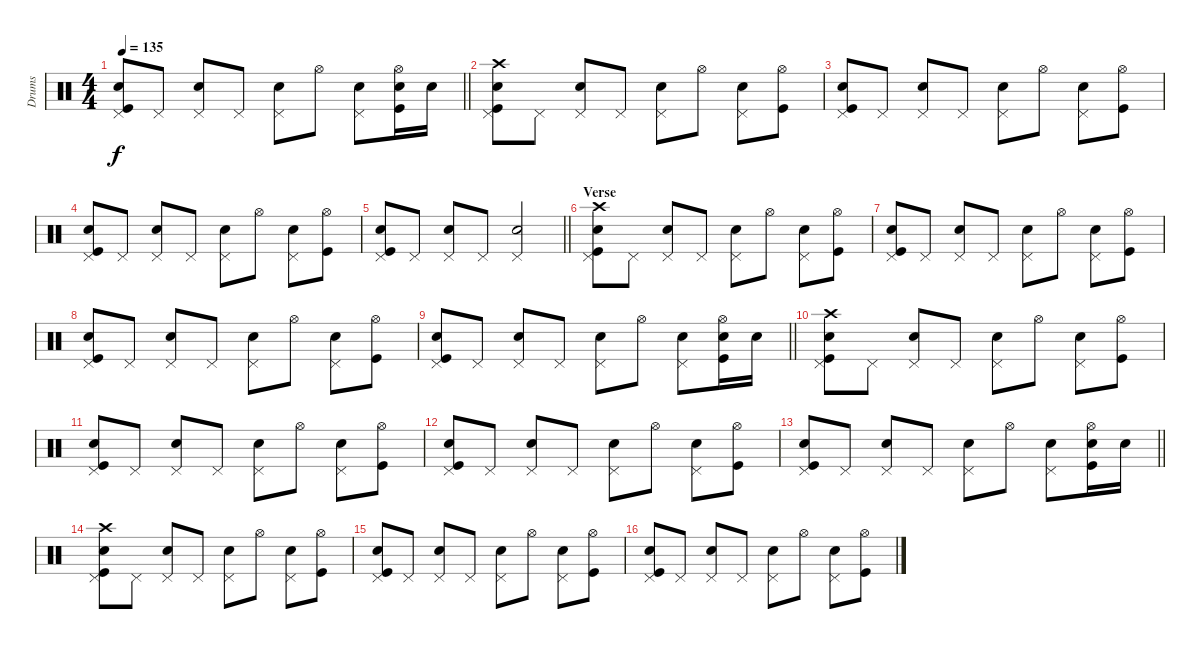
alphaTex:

\track ("Drums" "Drums") {instrument percussion}
\staff {score}
\articulation defaults
\ts (4 4)
\tempo 135
\clef neutral
\barLineRight lightlight
\ks c
("Pedal Hi-Hat (hit)" "Kick (hit)" "Electric Snare (hit)").8{dy f} "Pedal Hi-Hat (hit)".8 ("Pedal Hi-Hat (hit)" "Electric Snare (hit)").8 "Pedal Hi-Hat (hit)".8 ("Pedal Hi-Hat (hit)" "Electric Snare (hit)").8 "Hi-Hat (open)".8 ("Pedal Hi-Hat (hit)" "Electric Snare (hit)").8 ("Hi-Hat (open)" "Kick (hit)" "Electric Snare (hit)").16 "Electric Snare (hit)".16 |
("Pedal Hi-Hat (hit)" "Kick (hit)" "Electric Snare (hit)" "Crash high (hit)").8 "Pedal Hi-Hat (hit)".8 ("Pedal Hi-Hat (hit)" "Electric Snare (hit)").8 "Pedal Hi-Hat (hit)".8 ("Pedal Hi-Hat (hit)" "Electric Snare (hit)").8 "Hi-Hat (open)".8 ("Pedal Hi-Hat (hit)" "Electric Snare (hit)").8 ("Hi-Hat (open)" "Kick (hit)").8 |
("Pedal Hi-Hat (hit)" "Kick (hit)" "Electric Snare (hit)").8 "Pedal Hi-Hat (hit)".8 ("Pedal Hi-Hat (hit)" "Electric Snare (hit)").8 "Pedal Hi-Hat (hit)".8 ("Pedal Hi-Hat (hit)" "Electric Snare (hit)").8 "Hi-Hat (open)".8 ("Pedal Hi-Hat (hit)" "Electric Snare (hit)").8 ("Hi-Hat (open)" "Kick (hit)").8 |
("Pedal Hi-Hat (hit)" "Kick (hit)" "Electric Snare (hit)").8 "Pedal Hi-Hat (hit)".8 ("Pedal Hi-Hat (hit)" "Electric Snare (hit)").8 "Pedal Hi-Hat (hit)".8 ("Pedal Hi-Hat (hit)" "Electric Snare (hit)").8 "Hi-Hat (open)".8 ("Pedal Hi-Hat (hit)" "Electric Snare (hit)").8 ("Hi-Hat (open)" "Kick (hit)").8 |
\barLineRight lightlight
("Pedal Hi-Hat (hit)" "Kick (hit)" "Electric Snare (hit)").8 "Pedal Hi-Hat (hit)".8 ("Pedal Hi-Hat (hit)" "Electric Snare (hit)").8 "Pedal Hi-Hat (hit)".8 ("Pedal Hi-Hat (hit)" "Electric Snare (hit)").2 |
\section ("" "Verse")
("Pedal Hi-Hat (hit)" "Kick (hit)" "Electric Snare (hit)" "Crash high (hit)").8 "Pedal Hi-Hat (hit)".8 ("Pedal Hi-Hat (hit)" "Electric Snare (hit)").8 "Pedal Hi-Hat (hit)".8 ("Pedal Hi-Hat (hit)" "Electric Snare (hit)").8 "Hi-Hat (open)".8 ("Pedal Hi-Hat (hit)" "Electric Snare (hit)").8 ("Hi-Hat (open)" "Kick (hit)").8 |
("Pedal Hi-Hat (hit)" "Kick (hit)" "Electric Snare (hit)").8 "Pedal Hi-Hat (hit)".8 ("Pedal Hi-Hat (hit)" "Electric Snare (hit)").8 "Pedal Hi-Hat (hit)".8 ("Pedal Hi-Hat (hit)" "Electric Snare (hit)").8 "Hi-Hat (open)".8 ("Pedal Hi-Hat (hit)" "Electric Snare (hit)").8 ("Hi-Hat (open)" "Kick (hit)").8 |
("Pedal Hi-Hat (hit)" "Kick (hit)" "Electric Snare (hit)").8 "Pedal Hi-Hat (hit)".8 ("Pedal Hi-Hat (hit)" "Electric Snare (hit)").8 "Pedal Hi-Hat (hit)".8 ("Pedal Hi-Hat (hit)" "Electric Snare (hit)").8 "Hi-Hat (open)".8 ("Pedal Hi-Hat (hit)" "Electric Snare (hit)").8 ("Hi-Hat (open)" "Kick (hit)").8 |
\barLineRight lightlight
("Pedal Hi-Hat (hit)" "Kick (hit)" "Electric Snare (hit)").8 "Pedal Hi-Hat (hit)".8 ("Pedal Hi-Hat (hit)" "Electric Snare (hit)").8 "Pedal Hi-Hat (hit)".8 ("Pedal Hi-Hat (hit)" "Electric Snare (hit)").8 "Hi-Hat (open)".8 ("Pedal Hi-Hat (hit)" "Electric Snare (hit)").8 ("Hi-Hat (open)" "Kick (hit)" "Electric Snare (hit)").16 "Electric Snare (hit)".16 |
("Pedal Hi-Hat (hit)" "Kick (hit)" "Electric Snare (hit)" "Crash high (hit)").8 "Pedal Hi-Hat (hit)".8 ("Pedal Hi-Hat (hit)" "Electric Snare (hit)").8 "Pedal Hi-Hat (hit)".8 ("Pedal Hi-Hat (hit)" "Electric Snare (hit)").8 "Hi-Hat (open)".8 ("Pedal Hi-Hat (hit)" "Electric Snare (hit)").8 ("Hi-Hat (open)" "Kick (hit)").8 |
("Pedal Hi-Hat (hit)" "Kick (hit)" "Electric Snare (hit)").8 "Pedal Hi-Hat (hit)".8 ("Pedal Hi-Hat (hit)" "Electric Snare (hit)").8 "Pedal Hi-Hat (hit)".8 ("Pedal Hi-Hat (hit)" "Electric Snare (hit)").8 "Hi-Hat (open)".8 ("Pedal Hi-Hat (hit)" "Electric Snare (hit)").8 ("Hi-Hat (open)" "Kick (hit)").8 |
("Pedal Hi-Hat (hit)" "Kick (hit)" "Electric Snare (hit)").8 "Pedal Hi-Hat (hit)".8 ("Pedal Hi-Hat (hit)" "Electric Snare (hit)").8 "Pedal Hi-Hat (hit)".8 ("Pedal Hi-Hat (hit)" "Electric Snare (hit)").8 "Hi-Hat (open)".8 ("Pedal Hi-Hat (hit)" "Electric Snare (hit)").8 ("Hi-Hat (open)" "Kick (hit)").8 |
\barLineRight lightlight
("Pedal Hi-Hat (hit)" "Kick (hit)" "Electric Snare (hit)").8 "Pedal Hi-Hat (hit)".8 ("Pedal Hi-Hat (hit)" "Electric Snare (hit)").8 "Pedal Hi-Hat (hit)".8 ("Pedal Hi-Hat (hit)" "Electric Snare (hit)").8 "Hi-Hat (open)".8 ("Pedal Hi-Hat (hit)" "Electric Snare (hit)").8 ("Hi-Hat (open)" "Kick (hit)" "Electric Snare (hit)").16 "Electric Snare (hit)".16 |
("Pedal Hi-Hat (hit)" "Kick (hit)" "Electric Snare (hit)" "Crash high (hit)").8 "Pedal Hi-Hat (hit)".8 ("Pedal Hi-Hat (hit)" "Electric Snare (hit)").8 "Pedal Hi-Hat (hit)".8 ("Pedal Hi-Hat (hit)" "Electric Snare (hit)").8 "Hi-Hat (open)".8 ("Pedal Hi-Hat (hit)" "Electric Snare (hit)").8 ("Hi-Hat (open)" "Kick (hit)").8 |
("Pedal Hi-Hat (hit)" "Kick (hit)" "Electric Snare (hit)").8 "Pedal Hi-Hat (hit)".8 ("Pedal Hi-Hat (hit)" "Electric Snare (hit)").8 "Pedal Hi-Hat (hit)".8 ("Pedal Hi-Hat (hit)" "Electric Snare (hit)").8 "Hi-Hat (open)".8 ("Pedal Hi-Hat (hit)" "Electric Snare (hit)").8 ("Hi-Hat (open)" "Kick (hit)").8 |
("Pedal Hi-Hat (hit)" "Kick (hit)" "Electric Snare (hit)").8 "Pedal Hi-Hat (hit)".8 ("Pedal Hi-Hat (hit)" "Electric Snare (hit)").8 "Pedal Hi-Hat (hit)".8 ("Pedal Hi-Hat (hit)" "Electric Snare (hit)").8 "Hi-Hat (open)".8 ("Pedal Hi-Hat (hit)" "Electric Snare (hit)").8 ("Hi-Hat (open)" "Kick (hit)").8
